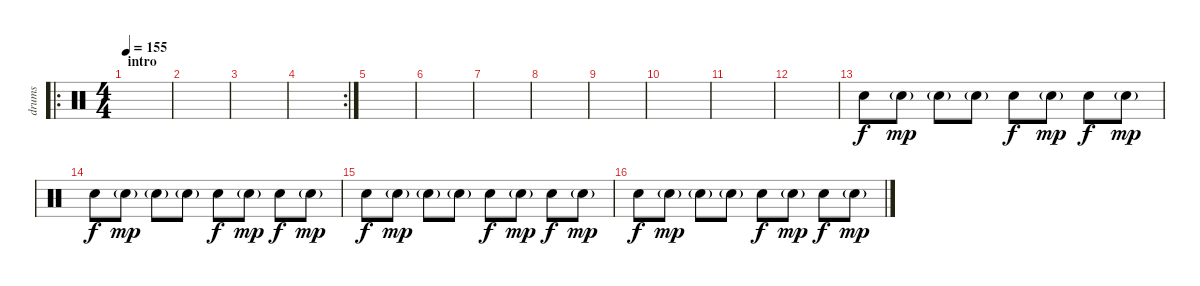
\track ("drums" "drums") {instrument percussion}
\staff {score}
\articulation defaults
\ro
\ts (4 4)
\section ("" "intro")
\tempo 155
\clef neutral
\ks c
|
|
|
\rc 2
|
|
|
|
|
|
|
|
|
"Electric Snare (hit)".8 "Electric Snare (hit)"{g}.8{dy mp} "Electric Snare (hit)"{g}.8 "Electric Snare (hit)"{g}.8 "Electric Snare (hit)".8{dy f} "Electric Snare (hit)"{g}.8{dy mp} "Electric Snare (hit)".8{dy f} "Electric Snare (hit)"{g}.8{dy mp} |
"Electric Snare (hit)".8{dy f} "Electric Snare (hit)"{g}.8{dy mp} "Electric Snare (hit)"{g}.8 "Electric Snare (hit)"{g}.8 "Electric Snare (hit)".8{dy f} "Electric Snare (hit)"{g}.8{dy mp} "Electric Snare (hit)".8{dy f} "Electric Snare (hit)"{g}.8{dy mp} |
"Electric Snare (hit)".8{dy f} "Electric Snare (hit)"{g}.8{dy mp} "Electric Snare (hit)"{g}.8 "Electric Snare (hit)"{g}.8 "Electric Snare (hit)".8{dy f} "Electric Snare (hit)"{g}.8{dy mp} "Electric Snare (hit)".8{dy f} "Electric Snare (hit)"{g}.8{dy mp} |
"Electric Snare (hit)".8{dy f} "Electric Snare (hit)"{g}.8{dy mp} "Electric Snare (hit)"{g}.8 "Electric Snare (hit)"{g}.8 "Electric Snare (hit)".8{dy f} "Electric Snare (hit)"{g}.8{dy mp} "Electric Snare (hit)".8{dy f} "Electric Snare (hit)"{g}.8{dy mp}
